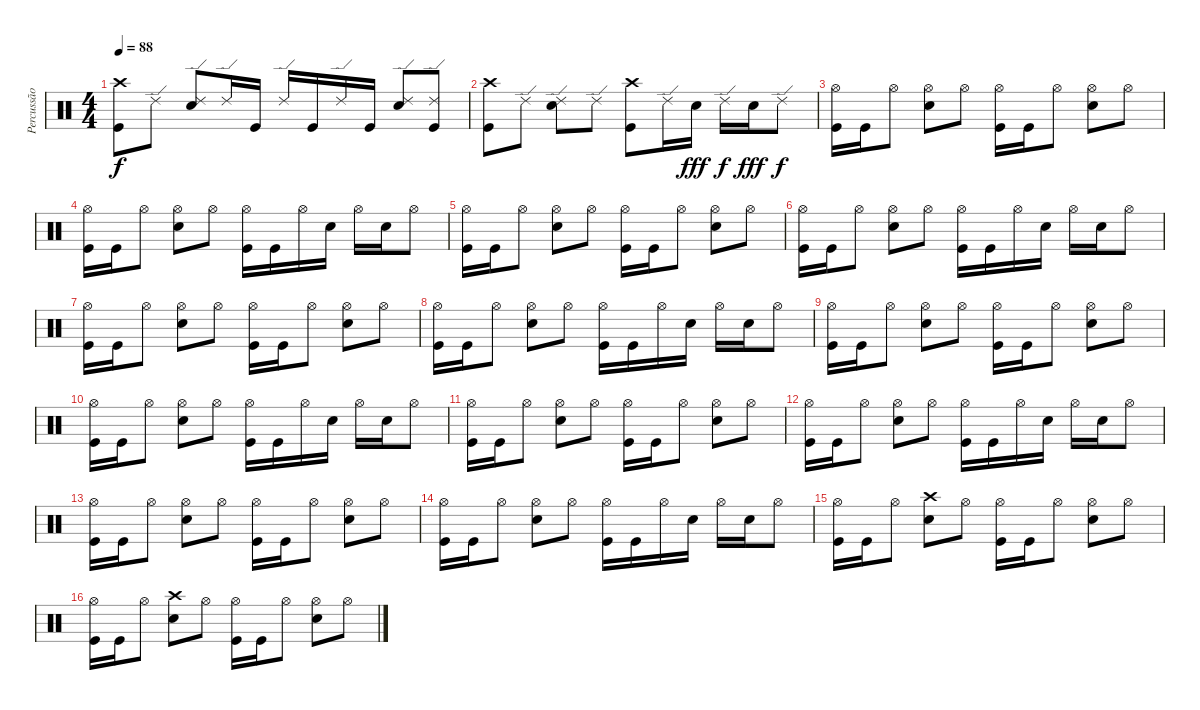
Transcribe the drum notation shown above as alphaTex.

\track ("Percussão" "Percussão") {instrument percussion}
\staff {score}
\articulation defaults
\ts (4 4)
\tempo 88
\clef neutral
\ks c
("Crash high (hit)" "Kick (hit)").8{dy f} "Ride (edge) 2".8 ("Ride (edge) 2" "Electric Snare (hit)").8 "Ride (edge) 2".16 "Kick (hit)".16 "Ride (edge) 2".16 "Kick (hit)".16 "Ride (edge) 2".16 "Kick (hit)".16 ("Ride (edge) 2" "Electric Snare (hit)").8 ("Ride (edge) 2" "Kick (hit)").8 |
("Crash high (hit)" "Kick (hit)").8 "Ride (edge) 2".8 ("Ride (edge) 2" "Electric Snare (hit)").8 "Ride (edge) 2".8 ("Crash high (hit)" "Kick (hit)").8 "Ride (edge) 2".16 "Electric Snare (hit)".16{dy fff} "Ride (edge) 2".16{dy f} "Electric Snare (hit)".16{dy fff} "Ride (edge) 2".8{dy f} |
("Hi-Hat (open)" "Kick (hit)").16 "Kick (hit)".16 "Hi-Hat (open)".8 ("Hi-Hat (open)" "Electric Snare (hit)").8 "Hi-Hat (open)".8 ("Hi-Hat (open)" "Kick (hit)").16 "Kick (hit)".16 "Hi-Hat (open)".8 ("Hi-Hat (open)" "Electric Snare (hit)").8 "Hi-Hat (open)".8 |
("Hi-Hat (open)" "Kick (hit)").16 "Kick (hit)".16 "Hi-Hat (open)".8 ("Hi-Hat (open)" "Electric Snare (hit)").8 "Hi-Hat (open)".8 ("Hi-Hat (open)" "Kick (hit)").16 "Kick (hit)".16 "Hi-Hat (open)".16 "Electric Snare (hit)".16 "Hi-Hat (open)".16 "Electric Snare (hit)".16 "Hi-Hat (open)".8 |
("Hi-Hat (open)" "Kick (hit)").16 "Kick (hit)".16 "Hi-Hat (open)".8 ("Hi-Hat (open)" "Electric Snare (hit)").8 "Hi-Hat (open)".8 ("Hi-Hat (open)" "Kick (hit)").16 "Kick (hit)".16 "Hi-Hat (open)".8 ("Hi-Hat (open)" "Electric Snare (hit)").8 "Hi-Hat (open)".8 |
("Hi-Hat (open)" "Kick (hit)").16 "Kick (hit)".16 "Hi-Hat (open)".8 ("Hi-Hat (open)" "Electric Snare (hit)").8 "Hi-Hat (open)".8 ("Hi-Hat (open)" "Kick (hit)").16 "Kick (hit)".16 "Hi-Hat (open)".16 "Electric Snare (hit)".16 "Hi-Hat (open)".16 "Electric Snare (hit)".16 "Hi-Hat (open)".8 |
("Hi-Hat (open)" "Kick (hit)").16 "Kick (hit)".16 "Hi-Hat (open)".8 ("Hi-Hat (open)" "Electric Snare (hit)").8 "Hi-Hat (open)".8 ("Hi-Hat (open)" "Kick (hit)").16 "Kick (hit)".16 "Hi-Hat (open)".8 ("Hi-Hat (open)" "Electric Snare (hit)").8 "Hi-Hat (open)".8 |
("Hi-Hat (open)" "Kick (hit)").16 "Kick (hit)".16 "Hi-Hat (open)".8 ("Hi-Hat (open)" "Electric Snare (hit)").8 "Hi-Hat (open)".8 ("Hi-Hat (open)" "Kick (hit)").16 "Kick (hit)".16 "Hi-Hat (open)".16 "Electric Snare (hit)".16 "Hi-Hat (open)".16 "Electric Snare (hit)".16 "Hi-Hat (open)".8 |
("Hi-Hat (open)" "Kick (hit)").16 "Kick (hit)".16 "Hi-Hat (open)".8 ("Hi-Hat (open)" "Electric Snare (hit)").8 "Hi-Hat (open)".8 ("Hi-Hat (open)" "Kick (hit)").16 "Kick (hit)".16 "Hi-Hat (open)".8 ("Hi-Hat (open)" "Electric Snare (hit)").8 "Hi-Hat (open)".8 |
("Hi-Hat (open)" "Kick (hit)").16 "Kick (hit)".16 "Hi-Hat (open)".8 ("Hi-Hat (open)" "Electric Snare (hit)").8 "Hi-Hat (open)".8 ("Hi-Hat (open)" "Kick (hit)").16 "Kick (hit)".16 "Hi-Hat (open)".16 "Electric Snare (hit)".16 "Hi-Hat (open)".16 "Electric Snare (hit)".16 "Hi-Hat (open)".8 |
("Hi-Hat (open)" "Kick (hit)").16 "Kick (hit)".16 "Hi-Hat (open)".8 ("Hi-Hat (open)" "Electric Snare (hit)").8 "Hi-Hat (open)".8 ("Hi-Hat (open)" "Kick (hit)").16 "Kick (hit)".16 "Hi-Hat (open)".8 ("Hi-Hat (open)" "Electric Snare (hit)").8 "Hi-Hat (open)".8 |
("Hi-Hat (open)" "Kick (hit)").16 "Kick (hit)".16 "Hi-Hat (open)".8 ("Hi-Hat (open)" "Electric Snare (hit)").8 "Hi-Hat (open)".8 ("Hi-Hat (open)" "Kick (hit)").16 "Kick (hit)".16 "Hi-Hat (open)".16 "Electric Snare (hit)".16 "Hi-Hat (open)".16 "Electric Snare (hit)".16 "Hi-Hat (open)".8 |
("Hi-Hat (open)" "Kick (hit)").16 "Kick (hit)".16 "Hi-Hat (open)".8 ("Hi-Hat (open)" "Electric Snare (hit)").8 "Hi-Hat (open)".8 ("Hi-Hat (open)" "Kick (hit)").16 "Kick (hit)".16 "Hi-Hat (open)".8 ("Hi-Hat (open)" "Electric Snare (hit)").8 "Hi-Hat (open)".8 |
("Hi-Hat (open)" "Kick (hit)").16 "Kick (hit)".16 "Hi-Hat (open)".8 ("Hi-Hat (open)" "Electric Snare (hit)").8 "Hi-Hat (open)".8 ("Hi-Hat (open)" "Kick (hit)").16 "Kick (hit)".16 "Hi-Hat (open)".16 "Electric Snare (hit)".16 "Hi-Hat (open)".16 "Electric Snare (hit)".16 "Hi-Hat (open)".8 |
("Hi-Hat (open)" "Kick (hit)").16 "Kick (hit)".16 "Hi-Hat (open)".8 ("Crash high (hit)" "Electric Snare (hit)").8 "Hi-Hat (open)".8 ("Hi-Hat (open)" "Kick (hit)").16 "Kick (hit)".16 "Hi-Hat (open)".8 ("Hi-Hat (open)" "Electric Snare (hit)").8 "Hi-Hat (open)".8 |
("Hi-Hat (open)" "Kick (hit)").16 "Kick (hit)".16 "Hi-Hat (open)".8 ("Crash high (hit)" "Electric Snare (hit)").8 "Hi-Hat (open)".8 ("Hi-Hat (open)" "Kick (hit)").16 "Kick (hit)".16 "Hi-Hat (open)".8 ("Hi-Hat (open)" "Electric Snare (hit)").8 "Hi-Hat (open)".8
